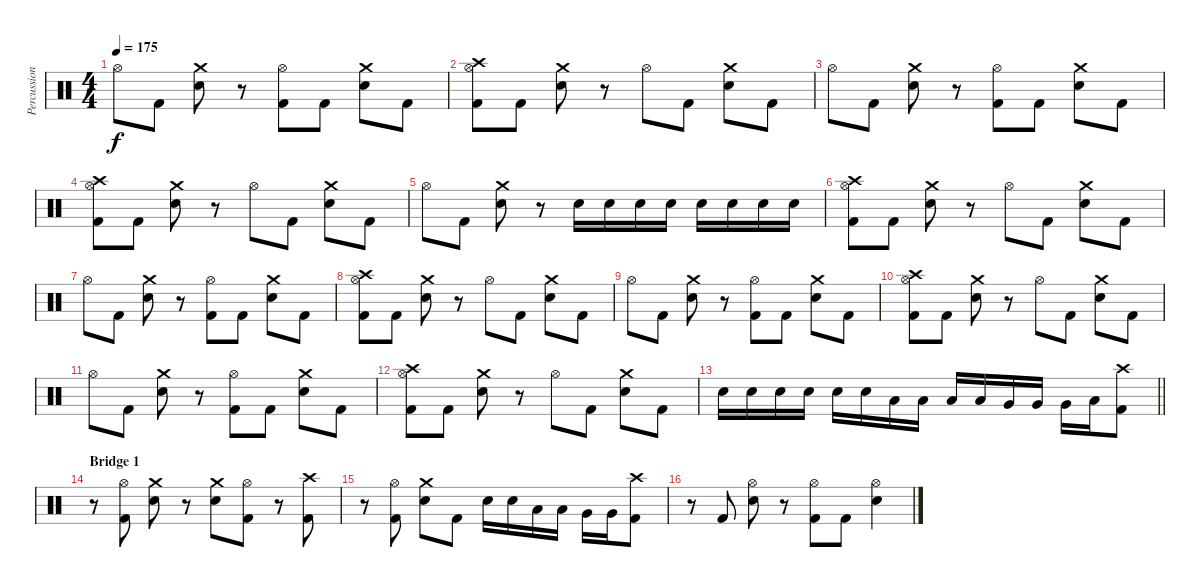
\track ("Percussion" "Percussion") {instrument percussion}
\staff {score}
\articulation defaults
\ts (4 4)
\tempo 175
\clef neutral
\ks c "Hi-Hat (open)".8{dy f} "Kick (hit) 2".8
("Crash medium (hit)" "Electric Snare (hit)").8 r.8 ("Hi-Hat (open)" "Kick (hit) 2").8 "Kick (hit) 2".8 ("Crash medium (hit)" "Electric Snare (hit)").8 "Kick (hit) 2".8 |
("Hi-Hat (open)" "Crash high (hit)" "Kick (hit) 2").8 "Kick (hit) 2".8 ("Crash medium (hit)" "Electric Snare (hit)").8 r.8 "Hi-Hat (open)".8 "Kick (hit) 2".8 ("Crash medium (hit)" "Electric Snare (hit)").8 "Kick (hit) 2".8 |
"Hi-Hat (open)".8 "Kick (hit) 2".8 ("Crash medium (hit)" "Electric Snare (hit)").8 r.8 ("Hi-Hat (open)" "Kick (hit) 2").8 "Kick (hit) 2".8 ("Crash medium (hit)" "Electric Snare (hit)").8 "Kick (hit) 2".8 |
("Hi-Hat (open)" "Crash high (hit)" "Kick (hit) 2").8 "Kick (hit) 2".8 ("Crash medium (hit)" "Electric Snare (hit)").8 r.8 "Hi-Hat (open)".8 "Kick (hit) 2".8 ("Crash medium (hit)" "Electric Snare (hit)").8 "Kick (hit) 2".8 |
"Hi-Hat (open)".8 "Kick (hit) 2".8 ("Crash medium (hit)" "Electric Snare (hit)").8 r.8 "Electric Snare (hit)".16 "Electric Snare (hit)".16 "Electric Snare (hit)".16 "Electric Snare (hit)".16 "Electric Snare (hit)".16 "Electric Snare (hit)".16 "Electric Snare (hit)".16 "Electric Snare (hit)".16 |
("Hi-Hat (open)" "Crash high (hit)" "Kick (hit) 2").8 "Kick (hit) 2".8 ("Crash medium (hit)" "Electric Snare (hit)").8 r.8 "Hi-Hat (open)".8 "Kick (hit) 2".8 ("Crash medium (hit)" "Electric Snare (hit)").8 "Kick (hit) 2".8 |
"Hi-Hat (open)".8 "Kick (hit) 2".8 ("Crash medium (hit)" "Electric Snare (hit)").8 r.8 ("Hi-Hat (open)" "Kick (hit) 2").8 "Kick (hit) 2".8 ("Crash medium (hit)" "Electric Snare (hit)").8 "Kick (hit) 2".8 |
("Hi-Hat (open)" "Crash high (hit)" "Kick (hit) 2").8 "Kick (hit) 2".8 ("Crash medium (hit)" "Electric Snare (hit)").8 r.8 "Hi-Hat (open)".8 "Kick (hit) 2".8 ("Crash medium (hit)" "Electric Snare (hit)").8 "Kick (hit) 2".8 |
"Hi-Hat (open)".8 "Kick (hit) 2".8 ("Crash medium (hit)" "Electric Snare (hit)").8 r.8 ("Hi-Hat (open)" "Kick (hit) 2").8 "Kick (hit) 2".8 ("Crash medium (hit)" "Electric Snare (hit)").8 "Kick (hit) 2".8 |
("Hi-Hat (open)" "Crash high (hit)" "Kick (hit) 2").8 "Kick (hit) 2".8 ("Crash medium (hit)" "Electric Snare (hit)").8 r.8 "Hi-Hat (open)".8 "Kick (hit) 2".8 ("Crash medium (hit)" "Electric Snare (hit)").8 "Kick (hit) 2".8 |
"Hi-Hat (open)".8 "Kick (hit) 2".8 ("Crash medium (hit)" "Electric Snare (hit)").8 r.8 ("Hi-Hat (open)" "Kick (hit) 2").8 "Kick (hit) 2".8 ("Crash medium (hit)" "Electric Snare (hit)").8 "Kick (hit) 2".8 |
("Hi-Hat (open)" "Crash high (hit)" "Kick (hit) 2").8 "Kick (hit) 2".8 ("Crash medium (hit)" "Electric Snare (hit)").8 r.8 "Hi-Hat (open)".8 "Kick (hit) 2".8 ("Crash medium (hit)" "Electric Snare (hit)").8 "Kick (hit) 2".8 |
\barLineRight lightlight "Electric Snare (hit)".16 "Electric Snare (hit)".16 "Electric Snare (hit)".16 "Electric Snare (hit)".16 "Electric Snare (hit)".16 "Electric Snare (hit)".16 "Low Tom (hit)".16 "Low Tom (hit)".16 "Low Tom (hit)".16 "Low Tom (hit)".16 "Very Low Tom (hit)".16 "Very Low Tom (hit)".16 "Very Low Tom (hit)".16 "Low Floor Tom (hit)".16
("Crash high (hit)" "Kick (hit) 2").8 |
\section ("" "Bridge 1")
r.8 ("Hi-Hat (open)" "Kick (hit) 2").8 ("Crash medium (hit)" "Electric Snare (hit)").8 r.8 ("Crash medium (hit)" "Electric Snare (hit)").8 ("Hi-Hat (open)" "Kick (hit) 2").8 r.8 ("Crash high (hit)" "Kick (hit) 2").8 |
r.8 ("Hi-Hat (open)" "Kick (hit) 2").8 ("Crash medium (hit)" "Electric Snare (hit)").8 "Kick (hit) 2".8 "Electric Snare (hit)".16 "Electric Snare (hit)".16 "Low Tom (hit)".16 "Low Tom (hit)".16 "Very Low Tom (hit)".16 "Very Low Tom (hit)".16 ("Crash high (hit)" "Kick (hit) 2").8 |
r.8 "Kick (hit) 2".8 ("Hi-Hat (open)" "Electric Snare (hit)").8 r.8 ("Hi-Hat (open)" "Kick (hit) 2").8 "Kick (hit) 2".8 ("Hi-Hat (open)" "Electric Snare (hit)").4
